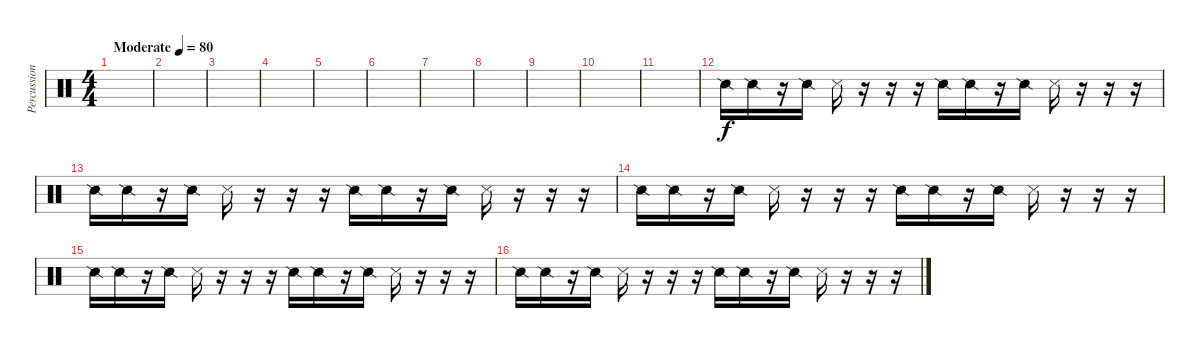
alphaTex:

\track ("Percussion" "Percussion") {instrument percussion}
\staff {score}
\articulation defaults
\ts (4 4)
\tempo (80 "Moderate")
\clef neutral
\ks c
|
|
|
|
|
|
|
|
|
|
|
"Snare (side stick) 2".16 "Snare (side stick) 2".16 r.16 "Snare (side stick) 2".16 "Metronome (hit)".16 r.16 r.16 r.16 "Snare (side stick) 2".16 "Snare (side stick) 2".16 r.16 "Snare (side stick) 2".16 "Metronome (hit)".16 r.16 r.16 r.16 |
"Snare (side stick) 2".16 "Snare (side stick) 2".16 r.16 "Snare (side stick) 2".16 "Metronome (hit)".16 r.16 r.16 r.16 "Snare (side stick) 2".16 "Snare (side stick) 2".16 r.16 "Snare (side stick) 2".16 "Metronome (hit)".16 r.16 r.16 r.16 |
"Snare (side stick) 2".16 "Snare (side stick) 2".16 r.16 "Snare (side stick) 2".16 "Metronome (hit)".16 r.16 r.16 r.16 "Snare (side stick) 2".16 "Snare (side stick) 2".16 r.16 "Snare (side stick) 2".16 "Metronome (hit)".16 r.16 r.16 r.16 |
"Snare (side stick) 2".16 "Snare (side stick) 2".16 r.16 "Snare (side stick) 2".16 "Metronome (hit)".16 r.16 r.16 r.16 "Snare (side stick) 2".16 "Snare (side stick) 2".16 r.16 "Snare (side stick) 2".16 "Metronome (hit)".16 r.16 r.16 r.16 |
"Snare (side stick) 2".16 "Snare (side stick) 2".16 r.16 "Snare (side stick) 2".16 "Metronome (hit)".16 r.16 r.16 r.16 "Snare (side stick) 2".16 "Snare (side stick) 2".16 r.16 "Snare (side stick) 2".16 "Metronome (hit)".16 r.16 r.16 r.16
